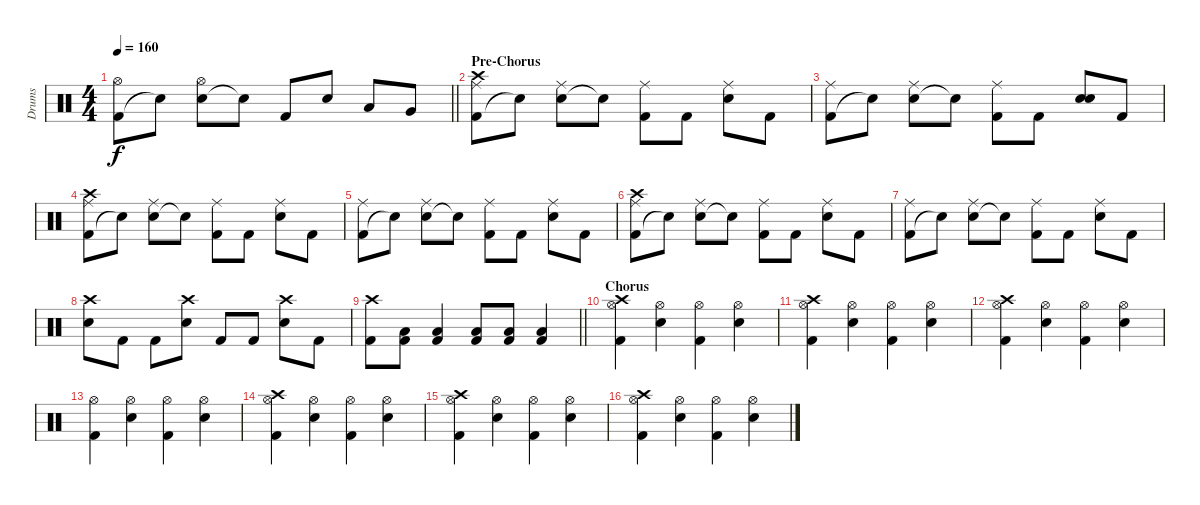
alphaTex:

\track ("Drums" "Drums") {instrument percussion}
\staff {score}
\articulation defaults
\ts (4 4)
\tempo 160
\clef neutral
\barLineRight lightlight
\ks c
("Kick (hit) 2" "Hi-Hat (open)").8{dy f} "Snare (hit)"{t}.8 ("Snare (hit) 2" "Hi-Hat (open)").8 "Snare (hit)"{t}.8 "Kick (hit) 2".8 "Snare (hit) 2".8 "Low Tom (hit)".8 "Very Low Tom (hit)".8 |
\section ("" "Pre-Chorus")
("Kick (hit) 2" "Ride (middle)" "Crash high (hit)").8 "Snare (hit)"{t}.8 ("Snare (hit) 2" "Ride (middle)").8 "Snare (hit)"{t}.8 ("Kick (hit) 2" "Ride (middle)").8 "Kick (hit) 2".8 ("Snare (hit) 2" "Ride (middle)").8 "Kick (hit) 2".8 |
("Kick (hit) 2" "Ride (middle)").8 "Snare (hit)"{t}.8 ("Snare (hit) 2" "Ride (middle)").8 "Snare (hit)"{t}.8 ("Kick (hit) 2" "Ride (middle)").8 "Kick (hit) 2".8 ("Snare (hit) 2" "Snare (hit)").8 "Kick (hit) 2".8 |
("Kick (hit) 2" "Ride (middle)" "Crash high (hit)").8 "Snare (hit)"{t}.8 ("Snare (hit) 2" "Ride (middle)").8 "Snare (hit)"{t}.8 ("Kick (hit) 2" "Ride (middle)").8 "Kick (hit) 2".8 ("Snare (hit) 2" "Ride (middle)").8 "Kick (hit) 2".8 |
("Kick (hit) 2" "Ride (middle)").8 "Snare (hit)"{t}.8 ("Snare (hit) 2" "Ride (middle)").8 "Snare (hit)"{t}.8 ("Kick (hit) 2" "Ride (middle)").8 "Kick (hit) 2".8 ("Snare (hit) 2" "Ride (middle)").8 "Kick (hit) 2".8 |
("Kick (hit) 2" "Ride (middle)" "Crash high (hit)").8 "Snare (hit)"{t}.8 ("Snare (hit) 2" "Ride (middle)").8 "Snare (hit)"{t}.8 ("Kick (hit) 2" "Ride (middle)").8 "Kick (hit) 2".8 ("Snare (hit) 2" "Ride (middle)").8 "Kick (hit) 2".8 |
("Kick (hit) 2" "Ride (middle)").8 "Snare (hit)"{t}.8 ("Snare (hit) 2" "Ride (middle)").8 "Snare (hit)"{t}.8 ("Kick (hit) 2" "Ride (middle)").8 "Kick (hit) 2".8 ("Snare (hit) 2" "Ride (middle)").8 "Kick (hit) 2".8 |
("Snare (hit) 2" "Crash high (hit)").8 "Kick (hit) 2".8 "Kick (hit) 2".8 ("Snare (hit) 2" "Crash high (hit)").8 "Kick (hit) 2".8 "Kick (hit) 2".8 ("Snare (hit) 2" "Crash high (hit)").8 "Kick (hit) 2".8 |
\barLineRight lightlight
("Kick (hit) 2" "Crash high (hit)").8 ("Low Floor Tom (hit)" "Kick (hit) 2").8 ("Low Floor Tom (hit)" "Kick (hit) 2").4 ("Low Floor Tom (hit)" "Kick (hit) 2").8 ("Low Floor Tom (hit)" "Kick (hit) 2").8 ("Low Floor Tom (hit)" "Kick (hit) 2").4 |
\section ("" "Chorus")
("Kick (hit) 2" "Hi-Hat (open)" "Crash high (hit)").4 ("Snare (hit) 2" "Hi-Hat (open)").4 ("Kick (hit) 2" "Hi-Hat (open)").4 ("Snare (hit) 2" "Hi-Hat (open)").4 |
("Kick (hit) 2" "Hi-Hat (open)" "Crash high (hit)").4 ("Snare (hit) 2" "Hi-Hat (open)").4 ("Kick (hit) 2" "Hi-Hat (open)").4 ("Snare (hit) 2" "Hi-Hat (open)").4 |
("Kick (hit) 2" "Hi-Hat (open)" "Crash high (hit)").4 ("Snare (hit) 2" "Hi-Hat (open)").4 ("Kick (hit) 2" "Hi-Hat (open)").4 ("Snare (hit) 2" "Hi-Hat (open)").4 |
("Kick (hit) 2" "Hi-Hat (open)").4 ("Snare (hit) 2" "Hi-Hat (open)").4 ("Kick (hit) 2" "Hi-Hat (open)").4 ("Snare (hit) 2" "Hi-Hat (open)").4 |
("Kick (hit) 2" "Hi-Hat (open)" "Crash high (hit)").4 ("Snare (hit) 2" "Hi-Hat (open)").4 ("Kick (hit) 2" "Hi-Hat (open)").4 ("Snare (hit) 2" "Hi-Hat (open)").4 |
("Kick (hit) 2" "Hi-Hat (open)" "Crash high (hit)").4 ("Snare (hit) 2" "Hi-Hat (open)").4 ("Kick (hit) 2" "Hi-Hat (open)").4 ("Snare (hit) 2" "Hi-Hat (open)").4 |
("Kick (hit) 2" "Hi-Hat (open)" "Crash high (hit)").4 ("Snare (hit) 2" "Hi-Hat (open)").4 ("Kick (hit) 2" "Hi-Hat (open)").4 ("Snare (hit) 2" "Hi-Hat (open)").4
